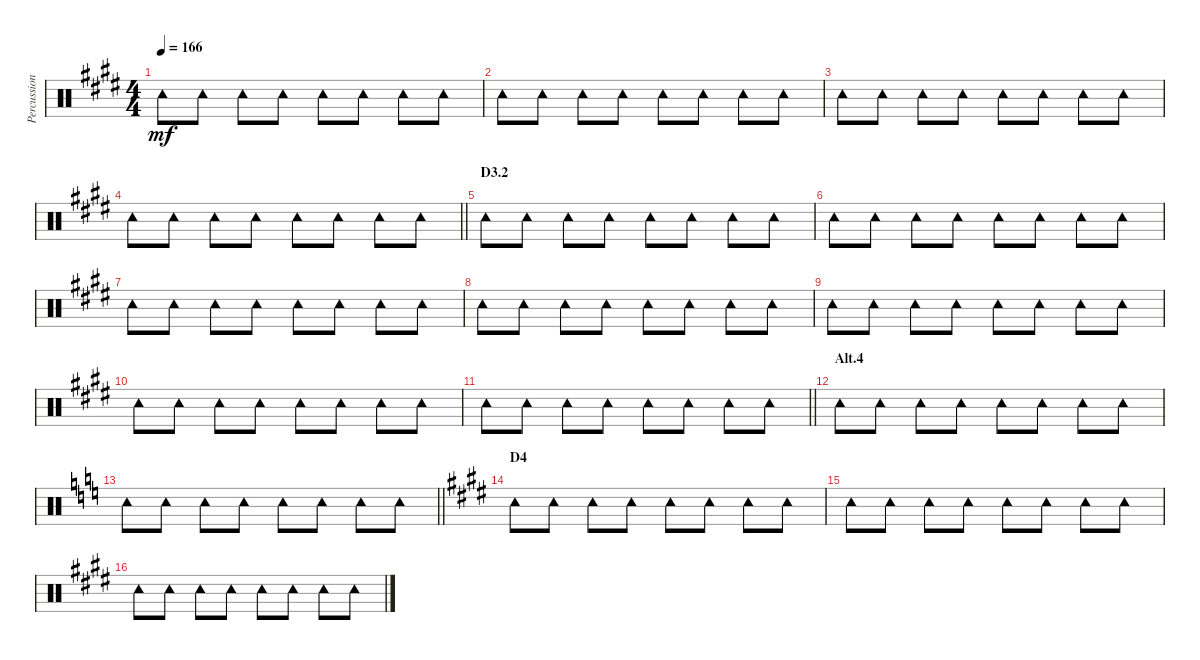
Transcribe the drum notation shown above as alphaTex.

\track ("Percussion" "Percussion") {instrument percussion}
\staff {score}
\articulation defaults
\ts (4 4)
\tempo 166
\clef neutral
\ks e "Tambourine (hit)".8{dy mf} "Tambourine (hit)".8 "Tambourine (hit)".8 "Tambourine (hit)".8 "Tambourine (hit)".8 "Tambourine (hit)".8 "Tambourine (hit)".8 "Tambourine (hit)".8
|
"Tambourine (hit)".8 "Tambourine (hit)".8 "Tambourine (hit)".8 "Tambourine (hit)".8 "Tambourine (hit)".8 "Tambourine (hit)".8 "Tambourine (hit)".8 "Tambourine (hit)".8 |
"Tambourine (hit)".8 "Tambourine (hit)".8 "Tambourine (hit)".8 "Tambourine (hit)".8 "Tambourine (hit)".8 "Tambourine (hit)".8 "Tambourine (hit)".8 "Tambourine (hit)".8 |
\barLineRight lightlight "Tambourine (hit)".8 "Tambourine (hit)".8 "Tambourine (hit)".8 "Tambourine (hit)".8 "Tambourine (hit)".8 "Tambourine (hit)".8 "Tambourine (hit)".8 "Tambourine (hit)".8
|
\section ("" "D3.2")
"Tambourine (hit)".8 "Tambourine (hit)".8 "Tambourine (hit)".8 "Tambourine (hit)".8 "Tambourine (hit)".8 "Tambourine (hit)".8 "Tambourine (hit)".8 "Tambourine (hit)".8 |
"Tambourine (hit)".8 "Tambourine (hit)".8 "Tambourine (hit)".8 "Tambourine (hit)".8 "Tambourine (hit)".8 "Tambourine (hit)".8 "Tambourine (hit)".8 "Tambourine (hit)".8 |
"Tambourine (hit)".8 "Tambourine (hit)".8 "Tambourine (hit)".8 "Tambourine (hit)".8 "Tambourine (hit)".8 "Tambourine (hit)".8 "Tambourine (hit)".8 "Tambourine (hit)".8 |
"Tambourine (hit)".8 "Tambourine (hit)".8 "Tambourine (hit)".8 "Tambourine (hit)".8 "Tambourine (hit)".8 "Tambourine (hit)".8 "Tambourine (hit)".8 "Tambourine (hit)".8 |
"Tambourine (hit)".8 "Tambourine (hit)".8 "Tambourine (hit)".8 "Tambourine (hit)".8 "Tambourine (hit)".8 "Tambourine (hit)".8 "Tambourine (hit)".8 "Tambourine (hit)".8 |
"Tambourine (hit)".8 "Tambourine (hit)".8 "Tambourine (hit)".8 "Tambourine (hit)".8 "Tambourine (hit)".8 "Tambourine (hit)".8 "Tambourine (hit)".8 "Tambourine (hit)".8 |
\barLineRight lightlight "Tambourine (hit)".8 "Tambourine (hit)".8 "Tambourine (hit)".8 "Tambourine (hit)".8 "Tambourine (hit)".8 "Tambourine (hit)".8 "Tambourine (hit)".8 "Tambourine (hit)".8
|
\section ("" "Alt.4")
"Tambourine (hit)".8 "Tambourine (hit)".8 "Tambourine (hit)".8 "Tambourine (hit)".8 "Tambourine (hit)".8 "Tambourine (hit)".8 "Tambourine (hit)".8 "Tambourine (hit)".8 |
\barLineRight lightlight
\ks c "Tambourine (hit)".8 "Tambourine (hit)".8 "Tambourine (hit)".8 "Tambourine (hit)".8 "Tambourine (hit)".8 "Tambourine (hit)".8 "Tambourine (hit)".8 "Tambourine (hit)".8
|
\section ("" "D4")
\ks e "Tambourine (hit)".8 "Tambourine (hit)".8 "Tambourine (hit)".8 "Tambourine (hit)".8 "Tambourine (hit)".8 "Tambourine (hit)".8 "Tambourine (hit)".8 "Tambourine (hit)".8
|
"Tambourine (hit)".8 "Tambourine (hit)".8 "Tambourine (hit)".8 "Tambourine (hit)".8 "Tambourine (hit)".8 "Tambourine (hit)".8 "Tambourine (hit)".8 "Tambourine (hit)".8 |
"Tambourine (hit)".8 "Tambourine (hit)".8 "Tambourine (hit)".8 "Tambourine (hit)".8 "Tambourine (hit)".8 "Tambourine (hit)".8 "Tambourine (hit)".8 "Tambourine (hit)".8
